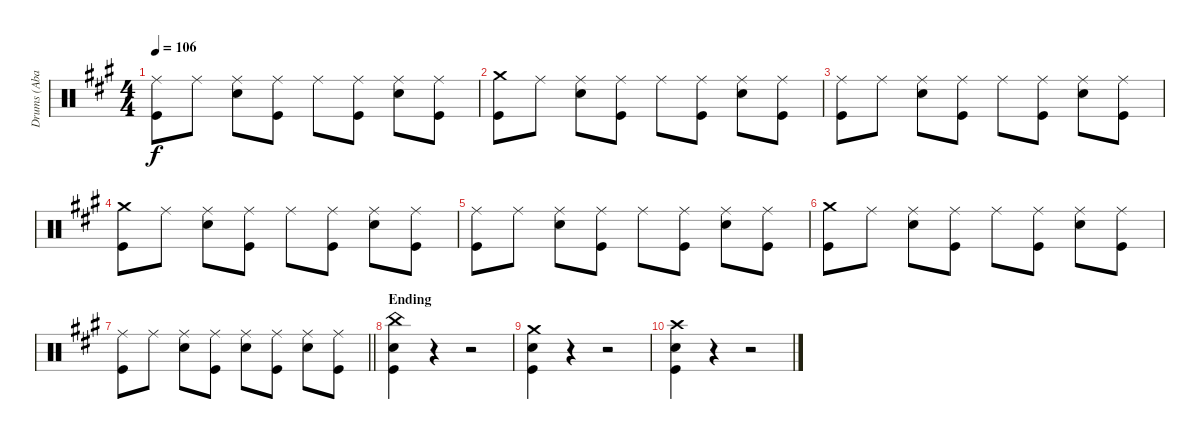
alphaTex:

\track ("Drums (Abaddon)" "Drums (Aba") {instrument percussion}
\staff {score}
\articulation defaults
\ts (4 4)
\tempo 106
\clef neutral
\ks f#minor
("Ride (middle)" "Kick (hit)").8{dy f} "Ride (middle)".8 ("Ride (middle)" "Electric Snare (hit)").8 ("Ride (middle)" "Kick (hit)").8 "Ride (middle)".8 ("Ride (middle)" "Kick (hit)").8 ("Ride (middle)" "Electric Snare (hit)").8 ("Ride (middle)" "Kick (hit)").8 |
("Crash medium (hit)" "Kick (hit)").8 "Ride (middle)".8 ("Ride (middle)" "Electric Snare (hit)").8 ("Ride (middle)" "Kick (hit)").8 "Ride (middle)".8 ("Ride (middle)" "Kick (hit)").8 ("Ride (middle)" "Electric Snare (hit)").8 ("Ride (middle)" "Kick (hit)").8 |
("Ride (middle)" "Kick (hit)").8 "Ride (middle)".8 ("Ride (middle)" "Electric Snare (hit)").8 ("Ride (middle)" "Kick (hit)").8 "Ride (middle)".8 ("Ride (middle)" "Kick (hit)").8 ("Ride (middle)" "Electric Snare (hit)").8 ("Ride (middle)" "Kick (hit)").8 |
("Crash medium (hit)" "Kick (hit)").8 "Ride (middle)".8 ("Ride (middle)" "Electric Snare (hit)").8 ("Ride (middle)" "Kick (hit)").8 "Ride (middle)".8 ("Ride (middle)" "Kick (hit)").8 ("Ride (middle)" "Electric Snare (hit)").8 ("Ride (middle)" "Kick (hit)").8 |
("Ride (middle)" "Kick (hit)").8 "Ride (middle)".8 ("Ride (middle)" "Electric Snare (hit)").8 ("Ride (middle)" "Kick (hit)").8 "Ride (middle)".8 ("Ride (middle)" "Kick (hit)").8 ("Ride (middle)" "Electric Snare (hit)").8 ("Ride (middle)" "Kick (hit)").8 |
("Crash medium (hit)" "Kick (hit)").8 "Ride (middle)".8 ("Ride (middle)" "Electric Snare (hit)").8 ("Ride (middle)" "Kick (hit)").8 "Ride (middle)".8 ("Ride (middle)" "Kick (hit)").8 ("Ride (middle)" "Electric Snare (hit)").8 ("Ride (middle)" "Kick (hit)").8 |
\barLineRight lightlight
("Ride (middle)" "Kick (hit)").8 "Ride (middle)".8 ("Ride (middle)" "Electric Snare (hit)").8 ("Ride (middle)" "Kick (hit)").8 ("Ride (middle)" "Electric Snare (hit)").8 ("Ride (middle)" "Kick (hit)").8 ("Ride (middle)" "Electric Snare (hit)").8 ("Ride (middle)" "Kick (hit)").8 |
\section ("" "Ending")
("China (hit)" "Electric Snare (hit)" "Kick (hit)").4 r.4 r.2 |
("Crash medium (hit)" "Electric Snare (hit)" "Kick (hit)").4 r.4 r.2 |
("Crash high (hit)" "Electric Snare (hit)" "Kick (hit)").4 r.4 r.2
